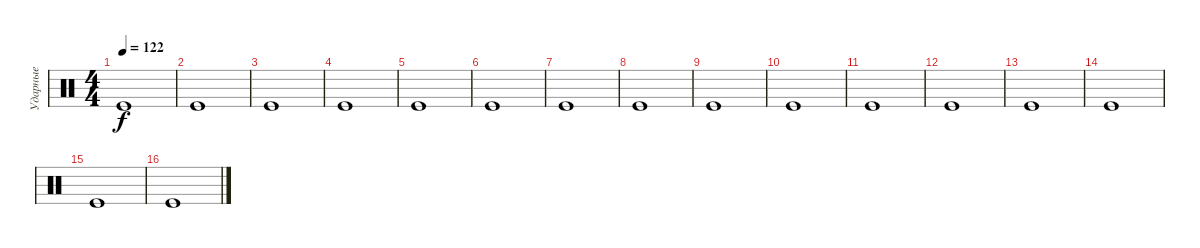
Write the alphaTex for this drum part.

\track ("Ударные" "Ударные") {instrument percussion}
\staff {score}
\articulation defaults
\ts (4 4)
\tempo 122
\clef neutral
\ks c "Kick (hit)".1{dy f}
|
"Kick (hit)".1 |
"Kick (hit)".1 |
"Kick (hit)".1 |
"Kick (hit)".1 |
"Kick (hit)".1 |
"Kick (hit)".1 |
"Kick (hit)".1 |
"Kick (hit)".1 |
"Kick (hit)".1 |
"Kick (hit)".1 |
"Kick (hit)".1 |
"Kick (hit)".1 |
"Kick (hit)".1 |
"Kick (hit)".1 |
"Kick (hit)".1
